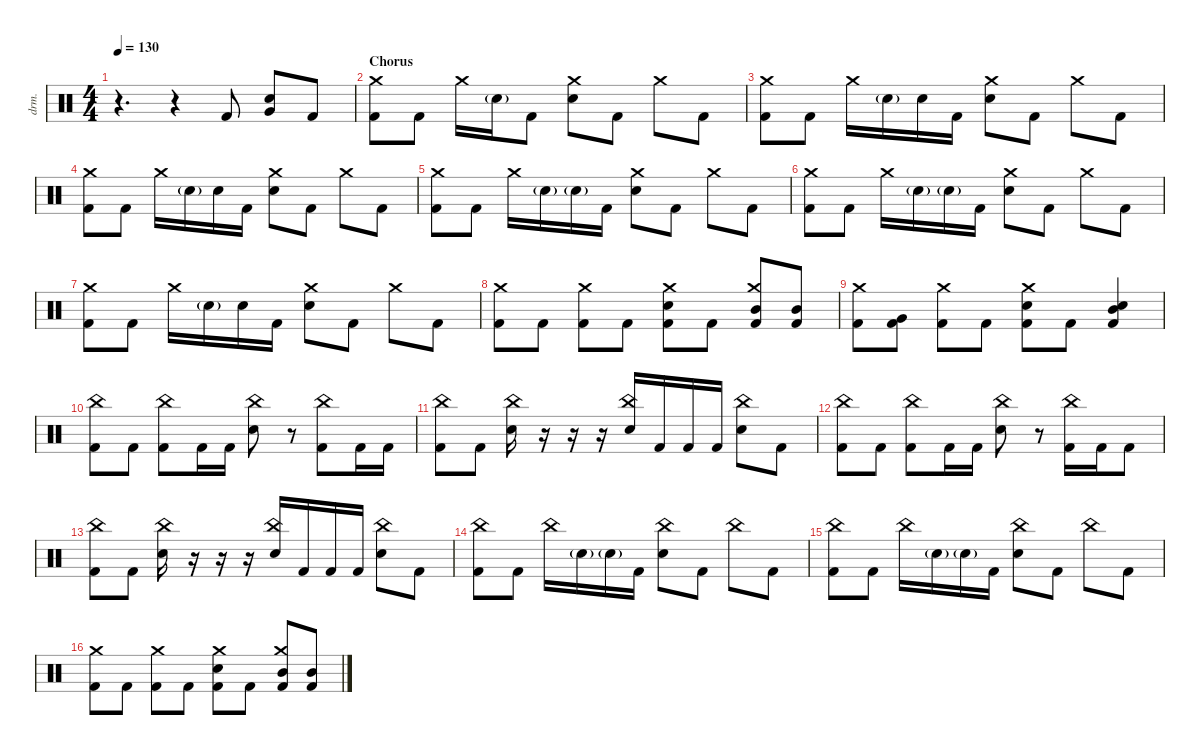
\defaultSystemsLayout 4
\hideDynamics
\bracketExtendMode nobrackets
\track ("Drums - Šimon" "drm.") {instrument percussion}
\staff {score}
\articulation defaults
\ts (4 4)
\tempo 130
\clef neutral
\ks c
r.4{d dy ff beam Down} r.4{beam Down} "Kick (hit) 2".8{beam Up} ("Snare (hit) 2" "Very Low Tom (hit)").8{beam Up} "Kick (hit) 2".8{beam Up} |
\section ("" "Chorus")
("Kick (hit) 2" "Crash medium (hit)").8{beam Down} "Kick (hit) 2".8{beam Down} "Crash medium (hit)".16{beam Down} "Snare (hit) 2"{g}.16{beam Down} "Kick (hit) 2".8{beam Down} ("Snare (hit) 2" "Crash medium (hit)").8{beam Down} "Kick (hit) 2".8{beam Down} "Crash medium (hit)".8{beam Down} "Kick (hit) 2".8{beam Down} |
("Kick (hit) 2" "Crash medium (hit)").8{beam Down} "Kick (hit) 2".8{beam Down} "Crash medium (hit)".16{beam Down} "Snare (hit) 2"{g}.16{beam Down} "Snare (hit) 2".16{beam Down} "Kick (hit) 2".16{beam Down} ("Snare (hit) 2" "Crash medium (hit)").8{beam Down} "Kick (hit) 2".8{beam Down} "Crash medium (hit)".8{beam Down} "Kick (hit) 2".8{beam Down} |
("Kick (hit) 2" "Crash medium (hit)").8{beam Down} "Kick (hit) 2".8{beam Down} "Crash medium (hit)".16{beam Down} "Snare (hit) 2"{g}.16{beam Down} "Snare (hit) 2".16{beam Down} "Kick (hit) 2".16{beam Down} ("Snare (hit) 2" "Crash medium (hit)").8{beam Down} "Kick (hit) 2".8{beam Down} "Crash medium (hit)".8{beam Down} "Kick (hit) 2".8{beam Down} |
("Kick (hit) 2" "Crash medium (hit)").8{beam Down} "Kick (hit) 2".8{beam Down} "Crash medium (hit)".16{beam Down} "Snare (hit) 2"{g}.16{beam Down} "Snare (hit) 2"{g}.16{beam Down} "Kick (hit) 2".16{beam Down} ("Snare (hit) 2" "Crash medium (hit)").8{beam Down} "Kick (hit) 2".8{beam Down} "Crash medium (hit)".8{beam Down} "Kick (hit) 2".8{beam Down} |
("Kick (hit) 2" "Crash medium (hit)").8{beam Down} "Kick (hit) 2".8{beam Down} "Crash medium (hit)".16{beam Down} "Snare (hit) 2"{g}.16{beam Down} "Snare (hit) 2"{g}.16{beam Down} "Kick (hit) 2".16{beam Down} ("Snare (hit) 2" "Crash medium (hit)").8{beam Down} "Kick (hit) 2".8{beam Down} "Crash medium (hit)".8{beam Down} "Kick (hit) 2".8{beam Down} |
("Kick (hit) 2" "Crash medium (hit)").8{beam Down} "Kick (hit) 2".8{beam Down} "Crash medium (hit)".16{beam Down} "Snare (hit) 2"{g}.16{beam Down} "Snare (hit) 2".16{beam Down} "Kick (hit) 2".16{beam Down} ("Snare (hit) 2" "Crash medium (hit)").8{beam Down} "Kick (hit) 2".8{beam Down} "Crash medium (hit)".8{beam Down} "Kick (hit) 2".8{beam Down} |
("Kick (hit) 2" "Crash medium (hit)").8{beam Down} "Kick (hit) 2".8{beam Down} ("Kick (hit) 2" "Crash medium (hit)").8{beam Down} "Kick (hit) 2".8{beam Down} ("Kick (hit) 2" "Crash medium (hit)" "Snare (hit) 2").8{beam Down} "Kick (hit) 2".8{beam Down} ("Kick (hit) 2" "Crash medium (hit)" "Mid Tom (hit)").8{beam Up} ("Kick (hit) 2" "Mid Tom (hit)").8{beam Up} |
("Kick (hit) 2" "Crash medium (hit)").8{beam Down} ("Kick (hit) 2" "Very Low Tom (hit)").8{beam Down} ("Kick (hit) 2" "Crash medium (hit)").8{beam Down} "Kick (hit) 2".8{beam Down} ("Kick (hit) 2" "Crash medium (hit)" "Snare (hit) 2").8{beam Down} "Kick (hit) 2".8{beam Down} ("Kick (hit) 2" "Mid Tom (hit)" "Snare (hit) 2").4{beam Up} |
("Kick (hit) 2" "China (hit)").8{beam Down} "Kick (hit) 2".8{beam Down} ("China (hit)" "Kick (hit) 2").8{beam Down} "Kick (hit) 2".16{beam Down} "Kick (hit) 2".16{beam Down} ("Snare (hit) 2" "China (hit)").8{beam Down} r.8{beam Down} ("China (hit)" "Kick (hit) 2").8{beam Down} "Kick (hit) 2".16{beam Down} "Kick (hit) 2".16{beam Down} |
("Kick (hit) 2" "China (hit)").8{beam Down} "Kick (hit) 2".8{beam Down} ("China (hit)" "Snare (hit) 2").16{beam Down} r.16{beam Down} r.16{beam Down} r.16{beam Down} ("Snare (hit) 2" "China (hit)").16{beam Up} "Kick (hit) 2".16{beam Up} "Kick (hit) 2".16{beam Up} "Kick (hit) 2".16{beam Up} ("Snare (hit) 2" "China (hit)").8{beam Down} "Kick (hit) 2".8{beam Down} |
("Kick (hit) 2" "China (hit)").8{beam Down} "Kick (hit) 2".8{beam Down} ("China (hit)" "Kick (hit) 2").8{beam Down} "Kick (hit) 2".16{beam Down} "Kick (hit) 2".16{beam Down} ("Snare (hit) 2" "China (hit)").8{beam Down} r.8{beam Down} ("China (hit)" "Kick (hit) 2").16{beam Down} "Kick (hit) 2".16{beam Down} "Kick (hit) 2".8{beam Down} |
("Kick (hit) 2" "China (hit)").8{beam Down} "Kick (hit) 2".8{beam Down} ("China (hit)" "Snare (hit) 2").16{beam Down} r.16{beam Down} r.16{beam Down} r.16{beam Down} ("Snare (hit) 2" "China (hit)").16{beam Up} "Kick (hit) 2".16{beam Up} "Kick (hit) 2".16{beam Up} "Kick (hit) 2".16{beam Up} ("Snare (hit) 2" "China (hit)").8{beam Down} "Kick (hit) 2".8{beam Down} |
("Kick (hit) 2" "China (hit)").8{beam Down} "Kick (hit) 2".8{beam Down} "China (hit)".16{beam Down} "Snare (hit) 2"{g}.16{beam Down} "Snare (hit) 2"{g}.16{beam Down} "Kick (hit) 2".16{beam Down} ("Snare (hit) 2" "China (hit)").8{beam Down} "Kick (hit) 2".8{beam Down} "China (hit)".8{beam Down} "Kick (hit) 2".8{beam Down} |
("Kick (hit) 2" "China (hit)").8{beam Down} "Kick (hit) 2".8{beam Down} "China (hit)".16{beam Down} "Snare (hit) 2"{g}.16{beam Down} "Snare (hit) 2"{g}.16{beam Down} "Kick (hit) 2".16{beam Down} ("Snare (hit) 2" "China (hit)").8{beam Down} "Kick (hit) 2".8{beam Down} "China (hit)".8{beam Down} "Kick (hit) 2".8{beam Down} |
("Kick (hit) 2" "Crash medium (hit)").8{beam Down} "Kick (hit) 2".8{beam Down} ("Kick (hit) 2" "Crash medium (hit)").8{beam Down} "Kick (hit) 2".8{beam Down} ("Kick (hit) 2" "Crash medium (hit)" "Snare (hit) 2").8{beam Down} "Kick (hit) 2".8{beam Down} ("Kick (hit) 2" "Crash medium (hit)" "Mid Tom (hit)").8{beam Up} ("Kick (hit) 2" "Mid Tom (hit)").8{beam Up}
